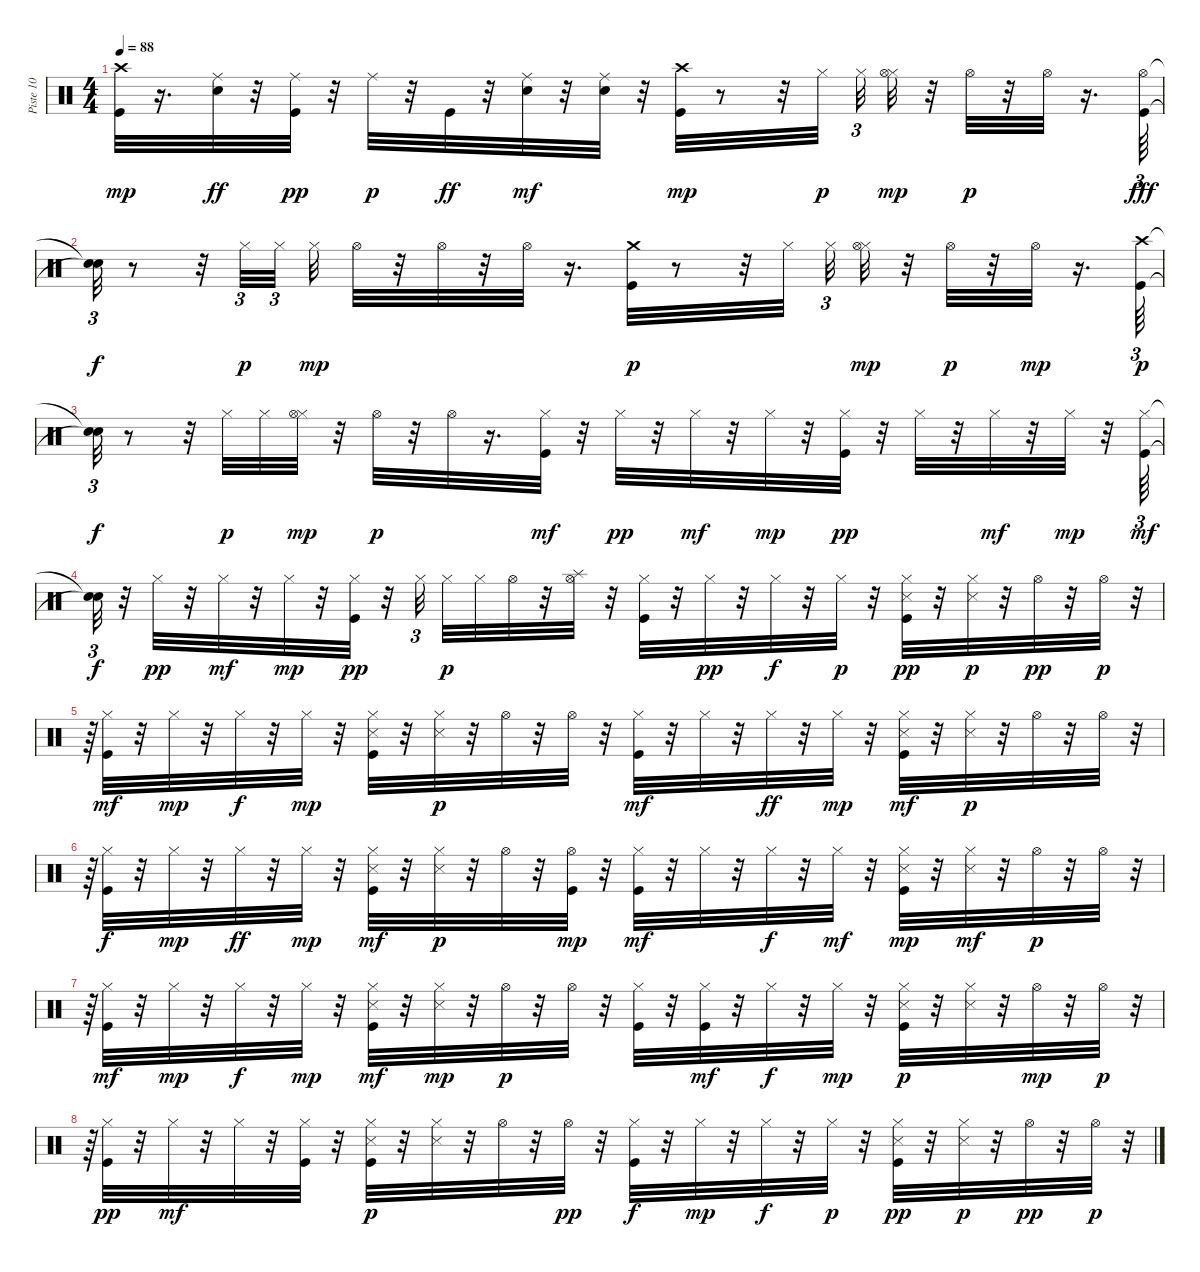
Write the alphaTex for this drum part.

\track ("Piste 10" "Piste 10") {instrument percussion}
\staff {score}
\articulation defaults
\ts (4 4)
\tempo 88
\clef neutral
\ks c
("Kick (hit)" "Crash high (hit)").32{dy mp} r.16{d} ("Ride (middle)" "Electric Snare (hit)").32{dy ff} r.32 ("Ride (middle)" "Kick (hit)").32{dy pp} r.32 "Ride (middle)".32{dy p} r.32 "Kick (hit)".32{dy ff} r.32 ("Ride (middle)" "Electric Snare (hit)").32{dy mf} r.32 ("Ride (middle)" "Electric Snare (hit)").32 r.32 ("Kick (hit)" "Crash high (hit)").32{dy mp} r.8 r.32 "Hi-Hat (closed)".32{dy p} "Hi-Hat (closed)".32{tu (3 2)} ("Hi-Hat (closed)" "Hi-Hat (open)").32{dy mp} r.32 "Hi-Hat (open)".32{dy p} r.32 "Hi-Hat (open)".32 r.16{d} ("Hi-Hat (open)" "Kick (hit)").64{tu (3 2) dy fff} |
("Snare (hit)"{t} "Snare (hit)"{t}).32{tu (3 2) dy f} r.8 r.32 "Hi-Hat (closed)".32{tu (3 2) dy p} "Hi-Hat (closed)".32{tu (3 2)} "Hi-Hat (closed)".32{dy mp} "Hi-Hat (open)".32 r.32 "Hi-Hat (open)".32 r.32 "Hi-Hat (open)".32 r.16{d} ("Kick (hit)" "Crash medium (hit)").32{dy p} r.8 r.32 "Hi-Hat (closed)".32 "Hi-Hat (closed)".32{tu (3 2)} ("Hi-Hat (closed)" "Hi-Hat (open)").32{dy mp} r.32 "Hi-Hat (open)".32{dy p} r.32 "Hi-Hat (open)".32{dy mp} r.16{d} ("Kick (hit)" "Crash high (hit)").64{tu (3 2) dy p} |
("Snare (hit)"{t} "Snare (hit)"{t}).32{tu (3 2) dy f} r.8 r.32 "Hi-Hat (closed)".32{dy p} "Hi-Hat (closed)".32 ("Hi-Hat (closed)" "Hi-Hat (open)").32{dy mp} r.32 "Hi-Hat (open)".32{dy p} r.32 "Hi-Hat (open)".32 r.16{d} ("Hi-Hat (closed)" "Kick (hit)").32{dy mf} r.32 "Hi-Hat (closed)".32{dy pp} r.32 "Hi-Hat (closed)".32{dy mf} r.32 "Hi-Hat (closed)".32{dy mp} r.32 ("Kick (hit)" "Hi-Hat (closed)").32{dy pp} r.32 "Hi-Hat (closed)".32 r.32 "Hi-Hat (closed)".32{dy mf} r.32 "Hi-Hat (closed)".32{dy mp} r.32 ("Hi-Hat (closed)" "Kick (hit)").64{tu (3 2) dy mf} |
("Snare (hit)"{t} "Snare (hit)"{t}).32{tu (3 2) dy f} r.32 "Hi-Hat (closed)".32{dy pp} r.32 "Hi-Hat (closed)".32{dy mf} r.32 "Hi-Hat (closed)".32{dy mp} r.32 ("Kick (hit)" "Hi-Hat (closed)").32{dy pp} r.32 "Hi-Hat (closed)".32{tu (3 2)} "Hi-Hat (closed)".32{dy p} "Hi-Hat (closed)".32 "Hi-Hat (open)".32 r.32 ("Hi-Hat (open)" "Splash (hit)").32 r.32 ("Kick (hit)" "Hi-Hat (closed)").32 r.32 "Hi-Hat (closed)".32{dy pp} r.32 "Hi-Hat (closed)".32{dy f} r.32 "Hi-Hat (closed)".32{dy p} r.32 ("Snare (side stick) 3" "Kick (hit)" "Hi-Hat (closed)").32{dy pp} r.32 ("Hi-Hat (closed)" "Snare (side stick) 3").32{dy p} r.32 "Hi-Hat (open)".32{dy pp} r.32 "Hi-Hat (open)".32{dy p} r.32{tu (3 2)} |
r.64{tu (3 2)} ("Hi-Hat (closed)" "Kick (hit)").32{dy mf} r.32 "Hi-Hat (closed)".32{dy mp} r.32 "Hi-Hat (closed)".32{dy f} r.32 "Hi-Hat (closed)".32{dy mp} r.32 ("Hi-Hat (closed)" "Snare (side stick) 3" "Kick (hit)").32 r.32 ("Hi-Hat (closed)" "Snare (side stick) 3").32{dy p} r.32 "Hi-Hat (open)".32 r.32 "Hi-Hat (open)".32 r.32 ("Hi-Hat (closed)" "Kick (hit)").32{dy mf} r.32 "Hi-Hat (closed)".32 r.32 "Hi-Hat (closed)".32{dy ff} r.32 "Hi-Hat (closed)".32{dy mp} r.32 ("Hi-Hat (closed)" "Snare (side stick) 3" "Kick (hit)").32{dy mf} r.32 ("Hi-Hat (closed)" "Snare (side stick) 3").32{dy p} r.32 "Hi-Hat (open)".32 r.32 "Hi-Hat (open)".32 r.32{tu (3 2)} |
r.64{tu (3 2)} ("Hi-Hat (closed)" "Kick (hit)").32{dy f} r.32 "Hi-Hat (closed)".32{dy mp} r.32 "Hi-Hat (closed)".32{dy ff} r.32 "Hi-Hat (closed)".32{dy mp} r.32 ("Hi-Hat (closed)" "Kick (hit)" "Snare (side stick) 3").32{dy mf} r.32 ("Hi-Hat (closed)" "Snare (side stick) 3").32{dy p} r.32 "Hi-Hat (open)".32 r.32 ("Hi-Hat (open)" "Kick (hit)").32{dy mp} r.32 ("Hi-Hat (closed)" "Kick (hit)").32{dy mf} r.32 "Hi-Hat (closed)".32 r.32 "Hi-Hat (closed)".32{dy f} r.32 "Hi-Hat (closed)".32{dy mf} r.32 ("Hi-Hat (closed)" "Snare (side stick) 3" "Kick (hit)").32{dy mp} r.32 ("Snare (side stick) 3" "Hi-Hat (closed)").32{dy mf} r.32 "Hi-Hat (open)".32{dy p} r.32 "Hi-Hat (open)".32 r.32{tu (3 2)} |
r.64{tu (3 2)} ("Kick (hit)" "Hi-Hat (closed)").32{dy mf} r.32 "Hi-Hat (closed)".32{dy mp} r.32 "Hi-Hat (closed)".32{dy f} r.32 "Hi-Hat (closed)".32{dy mp} r.32 ("Hi-Hat (closed)" "Snare (side stick) 3" "Kick (hit)").32{dy mf} r.32 ("Snare (side stick) 3" "Hi-Hat (closed)").32{dy mp} r.32 "Hi-Hat (open)".32{dy p} r.32 "Hi-Hat (open)".32 r.32 ("Kick (hit)" "Hi-Hat (closed)").32 r.32 ("Hi-Hat (closed)" "Kick (hit)").32{dy mf} r.32 "Hi-Hat (closed)".32{dy f} r.32 "Hi-Hat (closed)".32{dy mp} r.32 ("Hi-Hat (closed)" "Snare (side stick) 3" "Kick (hit)").32{dy p} r.32 ("Hi-Hat (closed)" "Snare (side stick) 3").32 r.32 "Hi-Hat (open)".32{dy mp} r.32 "Hi-Hat (open)".32{dy p} r.32{tu (3 2)} |
r.64{tu (3 2)} ("Hi-Hat (closed)" "Kick (hit)").32{dy pp} r.32 "Hi-Hat (closed)".32{dy mf} r.32 "Hi-Hat (closed)".32 r.32 ("Hi-Hat (closed)" "Kick (hit)").32 r.32 ("Snare (side stick) 3" "Kick (hit)" "Hi-Hat (closed)").32{dy p} r.32 ("Hi-Hat (closed)" "Snare (side stick) 3").32 r.32 "Hi-Hat (open)".32 r.32 "Hi-Hat (open)".32{dy pp} r.32 ("Kick (hit)" "Hi-Hat (closed)").32{dy f} r.32 "Hi-Hat (closed)".32{dy mp} r.32 "Hi-Hat (closed)".32{dy f} r.32 "Hi-Hat (closed)".32{dy p} r.32 ("Snare (side stick) 3" "Kick (hit)" "Hi-Hat (closed)").32{dy pp} r.32 ("Hi-Hat (closed)" "Snare (side stick) 3").32{dy p} r.32 "Hi-Hat (open)".32{dy pp} r.32 "Hi-Hat (open)".32{dy p} r.32{tu (3 2)}
